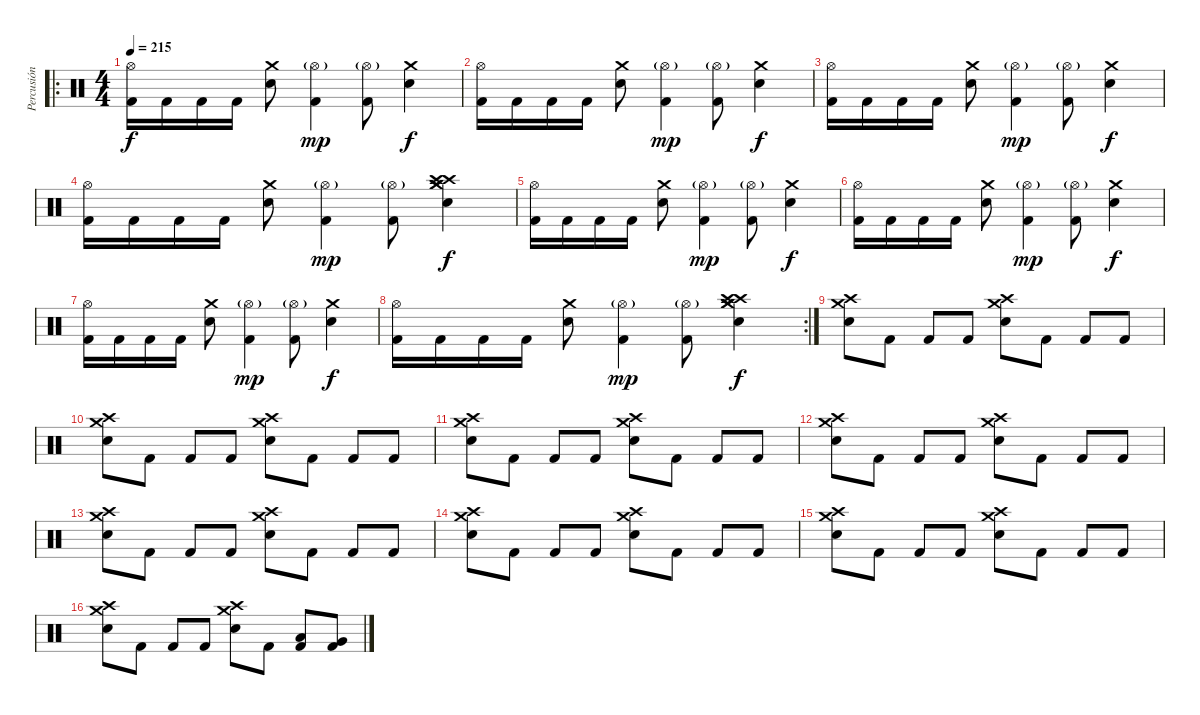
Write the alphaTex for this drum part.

\track ("Percusión" "Percusión") {instrument percussion}
\staff {score}
\articulation defaults
\ro
\ts (4 4)
\tempo 215
\clef neutral
\ks c
("Hi-Hat (open)" "Kick (hit) 2").16{dy f} "Kick (hit) 2".16 "Kick (hit) 2".16 "Kick (hit) 2".16 ("Crash medium (hit)" "Snare (hit) 2").8 ("Hi-Hat (open)"{g} "Kick (hit) 2").4{dy mp} ("Hi-Hat (open)"{g} "Kick (hit) 2").8 ("Crash medium (hit)" "Snare (hit) 2").4{dy f} |
("Hi-Hat (open)" "Kick (hit) 2").16 "Kick (hit) 2".16 "Kick (hit) 2".16 "Kick (hit) 2".16 ("Crash medium (hit)" "Snare (hit) 2").8 ("Hi-Hat (open)"{g} "Kick (hit) 2").4{dy mp} ("Hi-Hat (open)"{g} "Kick (hit) 2").8 ("Crash medium (hit)" "Snare (hit) 2").4{dy f} |
("Hi-Hat (open)" "Kick (hit) 2").16 "Kick (hit) 2".16 "Kick (hit) 2".16 "Kick (hit) 2".16 ("Crash medium (hit)" "Snare (hit) 2").8 ("Hi-Hat (open)"{g} "Kick (hit) 2").4{dy mp} ("Hi-Hat (open)"{g} "Kick (hit) 2").8 ("Crash medium (hit)" "Snare (hit) 2").4{dy f} |
("Hi-Hat (open)" "Kick (hit) 2").16 "Kick (hit) 2".16 "Kick (hit) 2".16 "Kick (hit) 2".16 ("Crash medium (hit)" "Snare (hit) 2").8 ("Hi-Hat (open)"{g} "Kick (hit) 2").4{dy mp} ("Hi-Hat (open)"{g} "Kick (hit) 2").8 ("Crash medium (hit)" "Crash high (hit)" "Crash high (hit)" "Crash medium (hit)" "Snare (hit) 2").4{dy f} |
("Hi-Hat (open)" "Kick (hit) 2").16 "Kick (hit) 2".16 "Kick (hit) 2".16 "Kick (hit) 2".16 ("Crash medium (hit)" "Snare (hit) 2").8 ("Hi-Hat (open)"{g} "Kick (hit) 2").4{dy mp} ("Hi-Hat (open)"{g} "Kick (hit) 2").8 ("Crash medium (hit)" "Snare (hit) 2").4{dy f} |
("Hi-Hat (open)" "Kick (hit) 2").16 "Kick (hit) 2".16 "Kick (hit) 2".16 "Kick (hit) 2".16 ("Crash medium (hit)" "Snare (hit) 2").8 ("Hi-Hat (open)"{g} "Kick (hit) 2").4{dy mp} ("Hi-Hat (open)"{g} "Kick (hit) 2").8 ("Crash medium (hit)" "Snare (hit) 2").4{dy f} |
("Hi-Hat (open)" "Kick (hit) 2").16 "Kick (hit) 2".16 "Kick (hit) 2".16 "Kick (hit) 2".16 ("Crash medium (hit)" "Snare (hit) 2").8 ("Hi-Hat (open)"{g} "Kick (hit) 2").4{dy mp} ("Hi-Hat (open)"{g} "Kick (hit) 2").8 ("Crash medium (hit)" "Snare (hit) 2").4{dy f} |
\rc 2
("Hi-Hat (open)" "Kick (hit) 2").16 "Kick (hit) 2".16 "Kick (hit) 2".16 "Kick (hit) 2".16 ("Crash medium (hit)" "Snare (hit) 2").8 ("Hi-Hat (open)"{g} "Kick (hit) 2").4{dy mp} ("Hi-Hat (open)"{g} "Kick (hit) 2").8 ("Crash medium (hit)" "Crash high (hit)" "Crash high (hit)" "Crash medium (hit)" "Snare (hit) 2").4{dy f} |
("Crash high (hit)" "Crash medium (hit)" "Snare (hit) 2").8 "Kick (hit) 2".8 "Kick (hit) 2".8 "Kick (hit) 2".8 ("Crash high (hit)" "Crash medium (hit)" "Snare (hit) 2").8 "Kick (hit) 2".8 "Kick (hit) 2".8 "Kick (hit) 2".8 |
("Crash high (hit)" "Crash medium (hit)" "Snare (hit) 2").8 "Kick (hit) 2".8 "Kick (hit) 2".8 "Kick (hit) 2".8 ("Crash high (hit)" "Crash medium (hit)" "Snare (hit) 2").8 "Kick (hit) 2".8 "Kick (hit) 2".8 "Kick (hit) 2".8 |
("Crash high (hit)" "Crash medium (hit)" "Snare (hit) 2").8 "Kick (hit) 2".8 "Kick (hit) 2".8 "Kick (hit) 2".8 ("Crash high (hit)" "Crash medium (hit)" "Snare (hit) 2").8 "Kick (hit) 2".8 "Kick (hit) 2".8 "Kick (hit) 2".8 |
("Crash high (hit)" "Crash medium (hit)" "Snare (hit) 2").8 "Kick (hit) 2".8 "Kick (hit) 2".8 "Kick (hit) 2".8 ("Crash high (hit)" "Crash medium (hit)" "Snare (hit) 2").8 "Kick (hit) 2".8 "Kick (hit) 2".8 "Kick (hit) 2".8 |
("Crash high (hit)" "Crash medium (hit)" "Snare (hit) 2").8 "Kick (hit) 2".8 "Kick (hit) 2".8 "Kick (hit) 2".8 ("Crash high (hit)" "Crash medium (hit)" "Snare (hit) 2").8 "Kick (hit) 2".8 "Kick (hit) 2".8 "Kick (hit) 2".8 |
("Crash high (hit)" "Crash medium (hit)" "Snare (hit) 2").8 "Kick (hit) 2".8 "Kick (hit) 2".8 "Kick (hit) 2".8 ("Crash high (hit)" "Crash medium (hit)" "Snare (hit) 2").8 "Kick (hit) 2".8 "Kick (hit) 2".8 "Kick (hit) 2".8 |
("Crash high (hit)" "Crash medium (hit)" "Snare (hit) 2").8 "Kick (hit) 2".8 "Kick (hit) 2".8 "Kick (hit) 2".8 ("Crash high (hit)" "Crash medium (hit)" "Snare (hit) 2").8 "Kick (hit) 2".8 "Kick (hit) 2".8 "Kick (hit) 2".8 |
("Crash high (hit)" "Crash medium (hit)" "Snare (hit) 2").8 "Kick (hit) 2".8 "Kick (hit) 2".8 "Kick (hit) 2".8 ("Crash high (hit)" "Crash medium (hit)" "Snare (hit) 2").8 "Kick (hit) 2".8 ("Low Tom (hit)" "Kick (hit) 2").8 ("Very Low Tom (hit)" "Kick (hit) 2").8
